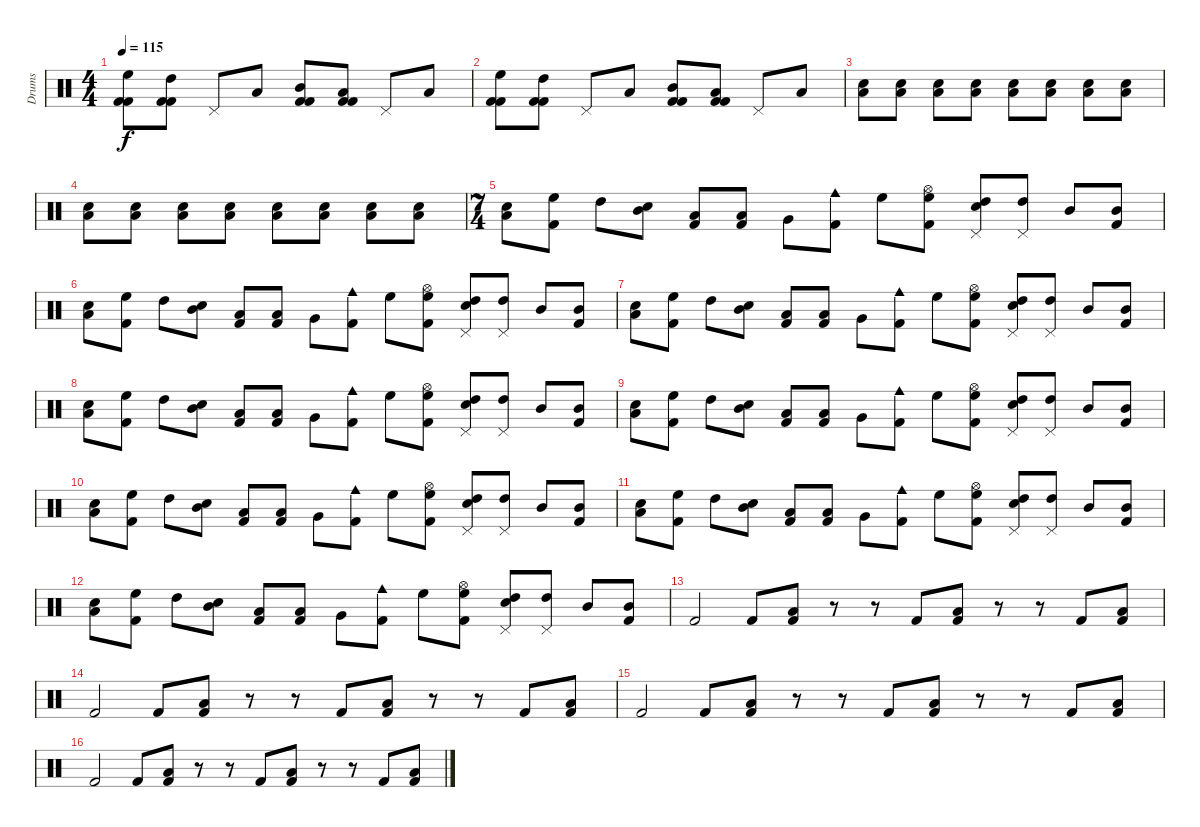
\track ("Drums" "Drums") {instrument percussion}
\staff {score}
\articulation defaults
\ts (4 4)
\tempo 115
\clef neutral
\ks c
("High Floor Tom (hit)" "Kick (hit) 2" "Kick (hit) 2").8{dy f} ("High Tom (hit)" "Kick (hit) 2" "Kick (hit) 2").8 "Pedal Hi-Hat (hit)".8 "Low Tom (hit)".8 ("Mid Tom (hit)" "Kick (hit) 2" "Kick (hit) 2").8 ("Low Tom (hit)" "Kick (hit) 2" "Kick (hit) 2").8 "Pedal Hi-Hat (hit)".8 "Low Tom (hit)".8 |
("High Floor Tom (hit)" "Kick (hit) 2" "Kick (hit) 2").8 ("High Tom (hit)" "Kick (hit) 2" "Kick (hit) 2").8 "Pedal Hi-Hat (hit)".8 "Low Tom (hit)".8 ("Mid Tom (hit)" "Kick (hit) 2" "Kick (hit) 2").8 ("Low Tom (hit)" "Kick (hit) 2" "Kick (hit) 2").8 "Pedal Hi-Hat (hit)".8 "Low Tom (hit)".8 |
("Low Floor Tom (hit)" "Electric Snare (hit)").8 ("Low Floor Tom (hit)" "Electric Snare (hit)").8 ("Low Floor Tom (hit)" "Electric Snare (hit)").8 ("Low Floor Tom (hit)" "Electric Snare (hit)").8 ("Low Floor Tom (hit)" "Electric Snare (hit)").8 ("Low Floor Tom (hit)" "Electric Snare (hit)").8 ("Low Floor Tom (hit)" "Electric Snare (hit)").8 ("Low Floor Tom (hit)" "Electric Snare (hit)").8 |
("Low Floor Tom (hit)" "Electric Snare (hit)").8 ("Low Floor Tom (hit)" "Electric Snare (hit)").8 ("Low Floor Tom (hit)" "Electric Snare (hit)").8 ("Low Floor Tom (hit)" "Electric Snare (hit)").8 ("Low Floor Tom (hit)" "Electric Snare (hit)").8 ("Low Floor Tom (hit)" "Electric Snare (hit)").8 ("Low Floor Tom (hit)" "Electric Snare (hit)").8 ("Low Floor Tom (hit)" "Electric Snare (hit)").8 |
\ts (7 4)
("Low Floor Tom (hit)" "Electric Snare (hit)").8 ("High Floor Tom (hit)" "Kick (hit) 2").8 "High Tom (hit)".8 ("Mid Tom (hit)" "Electric Snare (hit)").8 ("Low Tom (hit)" "Kick (hit) 2").8 ("Low Floor Tom (hit)" "Kick (hit) 2").8 "Very Low Tom (hit)".8 ("Cowbell medium (hit)" "Kick (hit) 2").8 "High Floor Tom (hit)".8 ("High Floor Tom (hit)" "Hi-Hat (open)" "Kick (hit) 2").8 ("High Tom (hit)" "Electric Snare (hit)" "Pedal Hi-Hat (hit)").8 ("High Tom (hit)" "Pedal Hi-Hat (hit)").8 "Mid Tom (hit)".8 ("Mid Tom (hit)" "Kick (hit) 2").8 |
("Low Floor Tom (hit)" "Electric Snare (hit)").8 ("High Floor Tom (hit)" "Kick (hit) 2").8 "High Tom (hit)".8 ("Mid Tom (hit)" "Electric Snare (hit)").8 ("Low Tom (hit)" "Kick (hit) 2").8 ("Low Floor Tom (hit)" "Kick (hit) 2").8 "Very Low Tom (hit)".8 ("Cowbell medium (hit)" "Kick (hit) 2").8 "High Floor Tom (hit)".8 ("High Floor Tom (hit)" "Hi-Hat (open)" "Kick (hit) 2").8 ("High Tom (hit)" "Electric Snare (hit)" "Pedal Hi-Hat (hit)").8 ("High Tom (hit)" "Pedal Hi-Hat (hit)").8 "Mid Tom (hit)".8 ("Mid Tom (hit)" "Kick (hit) 2").8 |
("Low Floor Tom (hit)" "Electric Snare (hit)").8 ("High Floor Tom (hit)" "Kick (hit) 2").8 "High Tom (hit)".8 ("Mid Tom (hit)" "Electric Snare (hit)").8 ("Low Tom (hit)" "Kick (hit) 2").8 ("Low Floor Tom (hit)" "Kick (hit) 2").8 "Very Low Tom (hit)".8 ("Cowbell medium (hit)" "Kick (hit) 2").8 "High Floor Tom (hit)".8 ("High Floor Tom (hit)" "Hi-Hat (open)" "Kick (hit) 2").8 ("High Tom (hit)" "Electric Snare (hit)" "Pedal Hi-Hat (hit)").8 ("High Tom (hit)" "Pedal Hi-Hat (hit)").8 "Mid Tom (hit)".8 ("Mid Tom (hit)" "Kick (hit) 2").8 |
("Low Floor Tom (hit)" "Electric Snare (hit)").8 ("High Floor Tom (hit)" "Kick (hit) 2").8 "High Tom (hit)".8 ("Mid Tom (hit)" "Electric Snare (hit)").8 ("Low Tom (hit)" "Kick (hit) 2").8 ("Low Floor Tom (hit)" "Kick (hit) 2").8 "Very Low Tom (hit)".8 ("Cowbell medium (hit)" "Kick (hit) 2").8 "High Floor Tom (hit)".8 ("High Floor Tom (hit)" "Hi-Hat (open)" "Kick (hit) 2").8 ("High Tom (hit)" "Electric Snare (hit)" "Pedal Hi-Hat (hit)").8 ("High Tom (hit)" "Pedal Hi-Hat (hit)").8 "Mid Tom (hit)".8 ("Mid Tom (hit)" "Kick (hit) 2").8 |
("Low Floor Tom (hit)" "Electric Snare (hit)").8 ("High Floor Tom (hit)" "Kick (hit) 2").8 "High Tom (hit)".8 ("Mid Tom (hit)" "Electric Snare (hit)").8 ("Low Tom (hit)" "Kick (hit) 2").8 ("Low Floor Tom (hit)" "Kick (hit) 2").8 "Very Low Tom (hit)".8 ("Cowbell medium (hit)" "Kick (hit) 2").8 "High Floor Tom (hit)".8 ("High Floor Tom (hit)" "Hi-Hat (open)" "Kick (hit) 2").8 ("High Tom (hit)" "Electric Snare (hit)" "Pedal Hi-Hat (hit)").8 ("High Tom (hit)" "Pedal Hi-Hat (hit)").8 "Mid Tom (hit)".8 ("Mid Tom (hit)" "Kick (hit) 2").8 |
("Low Floor Tom (hit)" "Electric Snare (hit)").8 ("High Floor Tom (hit)" "Kick (hit) 2").8 "High Tom (hit)".8 ("Mid Tom (hit)" "Electric Snare (hit)").8 ("Low Tom (hit)" "Kick (hit) 2").8 ("Low Floor Tom (hit)" "Kick (hit) 2").8 "Very Low Tom (hit)".8 ("Cowbell medium (hit)" "Kick (hit) 2").8 "High Floor Tom (hit)".8 ("High Floor Tom (hit)" "Hi-Hat (open)" "Kick (hit) 2").8 ("High Tom (hit)" "Electric Snare (hit)" "Pedal Hi-Hat (hit)").8 ("High Tom (hit)" "Pedal Hi-Hat (hit)").8 "Mid Tom (hit)".8 ("Mid Tom (hit)" "Kick (hit) 2").8 |
("Low Floor Tom (hit)" "Electric Snare (hit)").8 ("High Floor Tom (hit)" "Kick (hit) 2").8 "High Tom (hit)".8 ("Mid Tom (hit)" "Electric Snare (hit)").8 ("Low Tom (hit)" "Kick (hit) 2").8 ("Low Floor Tom (hit)" "Kick (hit) 2").8 "Very Low Tom (hit)".8 ("Cowbell medium (hit)" "Kick (hit) 2").8 "High Floor Tom (hit)".8 ("High Floor Tom (hit)" "Hi-Hat (open)" "Kick (hit) 2").8 ("High Tom (hit)" "Electric Snare (hit)" "Pedal Hi-Hat (hit)").8 ("High Tom (hit)" "Pedal Hi-Hat (hit)").8 "Mid Tom (hit)".8 ("Mid Tom (hit)" "Kick (hit) 2").8 |
("Low Floor Tom (hit)" "Electric Snare (hit)").8 ("High Floor Tom (hit)" "Kick (hit) 2").8 "High Tom (hit)".8 ("Mid Tom (hit)" "Electric Snare (hit)").8 ("Low Tom (hit)" "Kick (hit) 2").8 ("Low Floor Tom (hit)" "Kick (hit) 2").8 "Very Low Tom (hit)".8 ("Cowbell medium (hit)" "Kick (hit) 2").8 "High Floor Tom (hit)".8 ("High Floor Tom (hit)" "Hi-Hat (open)" "Kick (hit) 2").8 ("High Tom (hit)" "Electric Snare (hit)" "Pedal Hi-Hat (hit)").8 ("High Tom (hit)" "Pedal Hi-Hat (hit)").8 "Mid Tom (hit)".8 ("Mid Tom (hit)" "Kick (hit) 2").8 |
"Kick (hit) 2".2 "Kick (hit) 2".8 ("Low Tom (hit)" "Kick (hit) 2").8 r.8 r.8 "Kick (hit) 2".8 ("Low Tom (hit)" "Kick (hit) 2").8 r.8 r.8 "Kick (hit) 2".8 ("Low Tom (hit)" "Kick (hit) 2").8 |
"Kick (hit) 2".2 "Kick (hit) 2".8 ("Low Tom (hit)" "Kick (hit) 2").8 r.8 r.8 "Kick (hit) 2".8 ("Low Tom (hit)" "Kick (hit) 2").8 r.8 r.8 "Kick (hit) 2".8 ("Low Tom (hit)" "Kick (hit) 2").8 |
"Kick (hit) 2".2 "Kick (hit) 2".8 ("Low Tom (hit)" "Kick (hit) 2").8 r.8 r.8 "Kick (hit) 2".8 ("Low Tom (hit)" "Kick (hit) 2").8 r.8 r.8 "Kick (hit) 2".8 ("Low Tom (hit)" "Kick (hit) 2").8 |
"Kick (hit) 2".2 "Kick (hit) 2".8 ("Low Tom (hit)" "Kick (hit) 2").8 r.8 r.8 "Kick (hit) 2".8 ("Low Tom (hit)" "Kick (hit) 2").8 r.8 r.8 "Kick (hit) 2".8 ("Low Tom (hit)" "Kick (hit) 2").8
